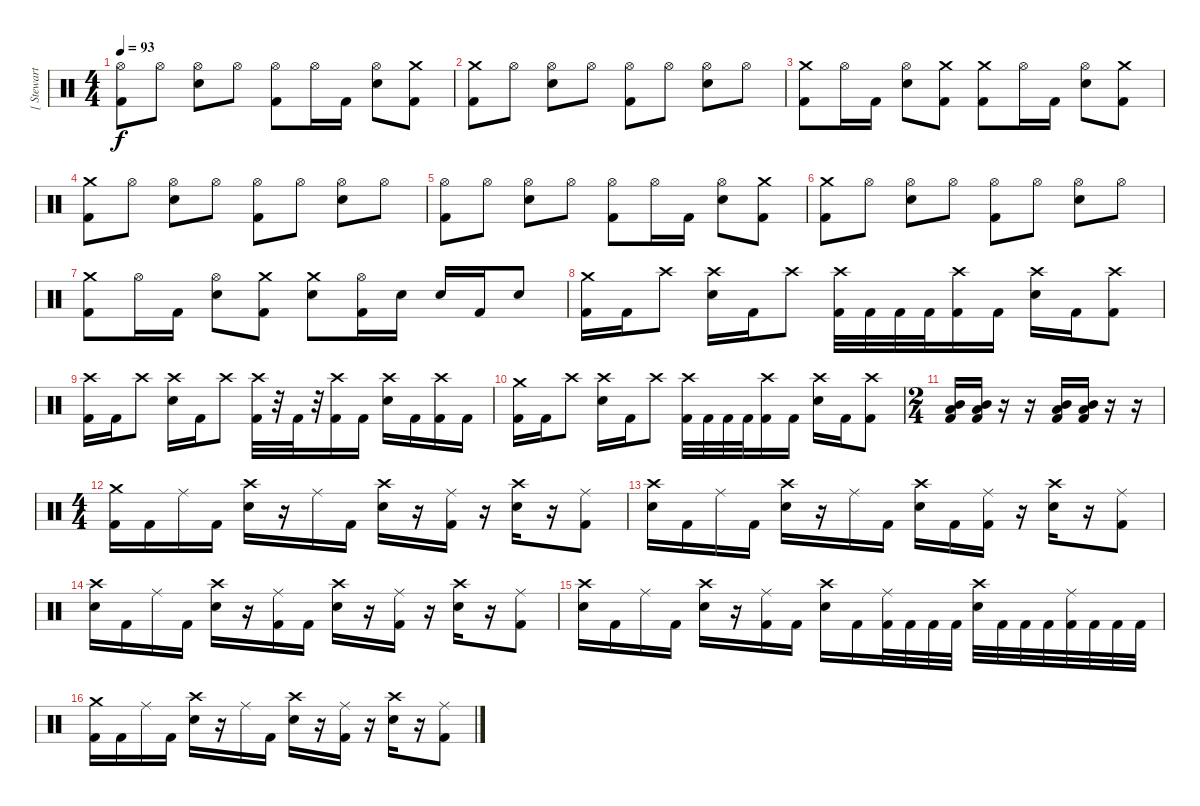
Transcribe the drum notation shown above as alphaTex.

\track ("[ Stewart ]" "[ Stewart ") {instrument percussion}
\staff {score}
\articulation defaults
\ts (4 4)
\tempo 93
\clef neutral
\ks c
("Kick (hit) 2" "Hi-Hat (open)").8{dy f} "Hi-Hat (open)".8 ("Electric Snare (hit)" "Hi-Hat (open)").8 "Hi-Hat (open)".8 ("Kick (hit) 2" "Hi-Hat (open)").8 "Hi-Hat (open)".16 "Kick (hit) 2".16 ("Electric Snare (hit)" "Hi-Hat (open)").8 ("Kick (hit) 2" "Crash medium (hit)").8 |
("Kick (hit) 2" "Crash medium (hit)").8 "Hi-Hat (open)".8 ("Electric Snare (hit)" "Hi-Hat (open)").8 "Hi-Hat (open)".8 ("Kick (hit) 2" "Hi-Hat (open)").8 "Hi-Hat (open)".8 ("Electric Snare (hit)" "Hi-Hat (open)").8 "Hi-Hat (open)".8 |
("Kick (hit) 2" "Crash medium (hit)").8 "Hi-Hat (open)".16 "Kick (hit) 2".16 ("Electric Snare (hit)" "Hi-Hat (open)").8 ("Kick (hit) 2" "Crash medium (hit)").8 ("Kick (hit) 2" "Crash medium (hit)").8 "Hi-Hat (open)".16 "Kick (hit) 2".16 ("Electric Snare (hit)" "Hi-Hat (open)").8 ("Kick (hit) 2" "Crash medium (hit)").8 |
("Kick (hit) 2" "Crash medium (hit)").8 "Hi-Hat (open)".8 ("Electric Snare (hit)" "Hi-Hat (open)").8 "Hi-Hat (open)".8 ("Kick (hit) 2" "Hi-Hat (open)").8 "Hi-Hat (open)".8 ("Electric Snare (hit)" "Hi-Hat (open)").8 "Hi-Hat (open)".8 |
("Kick (hit) 2" "Hi-Hat (open)").8 "Hi-Hat (open)".8 ("Electric Snare (hit)" "Hi-Hat (open)").8 "Hi-Hat (open)".8 ("Kick (hit) 2" "Hi-Hat (open)").8 "Hi-Hat (open)".16 "Kick (hit) 2".16 ("Electric Snare (hit)" "Hi-Hat (open)").8 ("Kick (hit) 2" "Crash medium (hit)").8 |
("Kick (hit) 2" "Crash medium (hit)").8 "Hi-Hat (open)".8 ("Electric Snare (hit)" "Hi-Hat (open)").8 "Hi-Hat (open)".8 ("Kick (hit) 2" "Hi-Hat (open)").8 "Hi-Hat (open)".8 ("Electric Snare (hit)" "Hi-Hat (open)").8 "Hi-Hat (open)".8 |
("Kick (hit) 2" "Crash medium (hit)").8 "Hi-Hat (open)".16 "Kick (hit) 2".16 ("Electric Snare (hit)" "Hi-Hat (open)").8 ("Kick (hit) 2" "Crash medium (hit)").8 ("Electric Snare (hit)" "Crash medium (hit)").8 ("Kick (hit) 2" "Hi-Hat (open)").16 "Electric Snare (hit)".16 "Electric Snare (hit)".16 "Kick (hit) 2".16 "Electric Snare (hit)".8 |
("Kick (hit) 2" "Crash medium (hit)").16 "Kick (hit) 2".16 "Crash high (hit)".8 ("Electric Snare (hit)" "Crash high (hit)").16 "Kick (hit) 2".16 "Crash high (hit)".8 ("Kick (hit) 2" "Crash high (hit)").32 "Kick (hit) 2".32 "Kick (hit) 2".32 "Kick (hit) 2".32 ("Kick (hit) 2" "Crash high (hit)").16 "Kick (hit) 2".16 ("Electric Snare (hit)" "Crash high (hit)").16 "Kick (hit) 2".16 ("Kick (hit) 2" "Crash high (hit)").8 |
("Kick (hit) 2" "Crash high (hit)").16 "Kick (hit) 2".16 "Crash high (hit)".8 ("Electric Snare (hit)" "Crash high (hit)").16 "Kick (hit) 2".16 "Crash high (hit)".8 ("Kick (hit) 2" "Crash high (hit)").32 r.32 "Kick (hit) 2".32 r.32 ("Kick (hit) 2" "Crash high (hit)").16 "Kick (hit) 2".16 ("Electric Snare (hit)" "Crash high (hit)").16 "Kick (hit) 2".16 ("Kick (hit) 2" "Crash high (hit)").16 "Kick (hit) 2".16 |
("Kick (hit) 2" "Crash medium (hit)").16 "Kick (hit) 2".16 "Crash high (hit)".8 ("Electric Snare (hit)" "Crash high (hit)").16 "Kick (hit) 2".16 "Crash high (hit)".8 ("Kick (hit) 2" "Crash high (hit)").32 "Kick (hit) 2".32 "Kick (hit) 2".32 "Kick (hit) 2".32 ("Kick (hit) 2" "Crash high (hit)").16 "Kick (hit) 2".16 ("Electric Snare (hit)" "Crash high (hit)").16 "Kick (hit) 2".16 ("Kick (hit) 2" "Crash high (hit)").8 |
\ts (2 4)
("Mid Tom (hit)" "Low Tom (hit)" "Kick (hit) 2").16 ("Mid Tom (hit)" "Low Tom (hit)" "Kick (hit) 2").16 r.16 r.16 ("Mid Tom (hit)" "Low Tom (hit)" "Kick (hit) 2").16 ("Mid Tom (hit)" "Low Tom (hit)" "Kick (hit) 2").16 r.16 r.16 |
\ts (4 4)
("Kick (hit) 2" "Crash medium (hit)").16 "Kick (hit) 2".16 "Ride (middle)".16 "Kick (hit) 2".16 ("Electric Snare (hit)" "Crash high (hit)").16 r.16 "Ride (middle)".16 "Kick (hit) 2".16 ("Electric Snare (hit)" "Crash high (hit)").16 r.16 ("Kick (hit) 2" "Ride (middle)").16 r.16 ("Electric Snare (hit)" "Crash high (hit)").16 r.16 ("Kick (hit) 2" "Ride (middle)").8 |
("Electric Snare (hit)" "Crash high (hit)").16 "Kick (hit) 2".16 "Ride (middle)".16 "Kick (hit) 2".16 ("Electric Snare (hit)" "Crash high (hit)").16 r.16 "Ride (middle)".16 "Kick (hit) 2".16 ("Electric Snare (hit)" "Crash high (hit)").16 "Kick (hit) 2".16 ("Kick (hit) 2" "Ride (middle)").16 r.16 ("Electric Snare (hit)" "Crash high (hit)").16 r.16 ("Kick (hit) 2" "Ride (middle)").8 |
("Electric Snare (hit)" "Crash high (hit)").16 "Kick (hit) 2".16 "Ride (middle)".16 "Kick (hit) 2".16 ("Electric Snare (hit)" "Crash high (hit)").16 r.16 ("Kick (hit) 2" "Ride (middle)").16 "Kick (hit) 2".16 ("Electric Snare (hit)" "Crash high (hit)").16 r.16 ("Kick (hit) 2" "Ride (middle)").16 r.16 ("Electric Snare (hit)" "Crash high (hit)").16 r.16 ("Kick (hit) 2" "Ride (middle)").8 |
("Electric Snare (hit)" "Crash high (hit)").16 "Kick (hit) 2".16 "Ride (middle)".16 "Kick (hit) 2".16 ("Electric Snare (hit)" "Crash high (hit)").16 r.16 ("Kick (hit) 2" "Ride (middle)").16 "Kick (hit) 2".16 ("Electric Snare (hit)" "Crash high (hit)").16 "Kick (hit) 2".16 ("Kick (hit) 2" "Ride (middle)").32 "Kick (hit) 2".32 "Kick (hit) 2".32 "Kick (hit) 2".32 ("Electric Snare (hit)" "Crash high (hit)").32 "Kick (hit) 2".32 "Kick (hit) 2".32 "Kick (hit) 2".32 ("Kick (hit) 2" "Ride (middle)").32 "Kick (hit) 2".32 "Kick (hit) 2".32 "Kick (hit) 2".32 |
("Kick (hit) 2" "Crash medium (hit)").16 "Kick (hit) 2".16 "Ride (middle)".16 "Kick (hit) 2".16 ("Electric Snare (hit)" "Crash high (hit)").16 r.16 "Ride (middle)".16 "Kick (hit) 2".16 ("Electric Snare (hit)" "Crash high (hit)").16 r.16 ("Kick (hit) 2" "Ride (middle)").16 r.16 ("Electric Snare (hit)" "Crash high (hit)").16 r.16 ("Kick (hit) 2" "Ride (middle)").8
